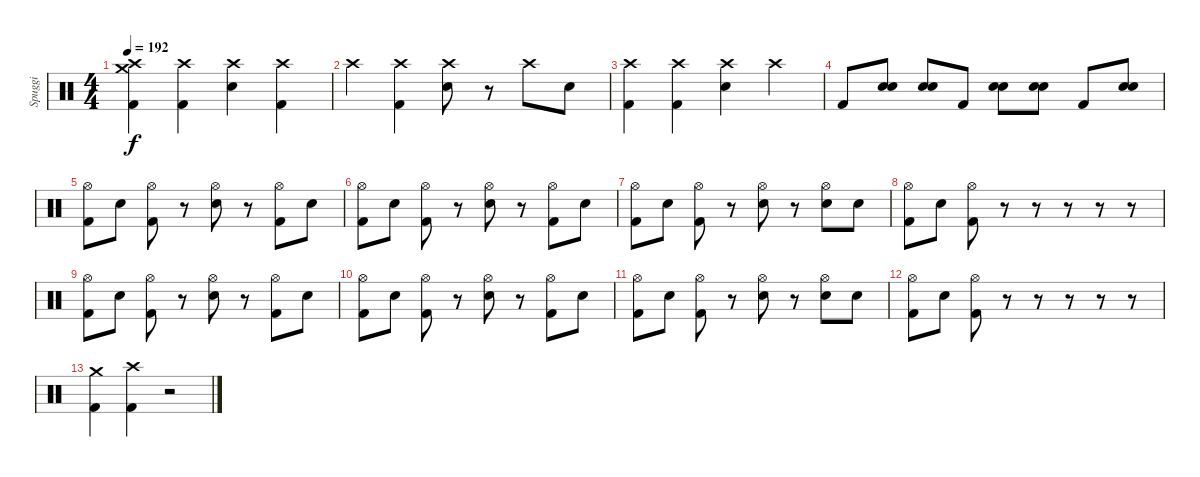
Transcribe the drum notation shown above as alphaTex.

\track ("Spuggi" "Spuggi") {instrument percussion}
\staff {score}
\articulation defaults
\ts (4 4)
\tempo 192
\clef neutral
\ks c
("Crash high (hit)" "Crash medium (hit)" "Kick (hit) 2").4{dy f} ("Crash high (hit)" "Kick (hit) 2").4 ("Crash high (hit)" "Snare (hit) 2").4 ("Crash high (hit)" "Kick (hit) 2").4 |
"Crash high (hit)".4 ("Crash high (hit)" "Kick (hit) 2").4 ("Crash high (hit)" "Snare (hit) 2").8 r.8 "Crash high (hit)".8 "Snare (hit) 2".8 |
("Crash high (hit)" "Kick (hit) 2").4 ("Crash high (hit)" "Kick (hit) 2").4 ("Crash high (hit)" "Snare (hit) 2").4 "Crash high (hit)".4 |
"Kick (hit) 2".8 ("Snare (hit) 2" "Snare (hit) 2").8 ("Snare (hit) 2" "Snare (hit) 2").8 "Kick (hit) 2".8 ("Snare (hit) 2" "Snare (hit) 2").8 ("Snare (hit) 2" "Snare (hit) 2").8 "Kick (hit) 2".8 ("Snare (hit) 2" "Snare (hit) 2").8 |
("Hi-Hat (open)" "Kick (hit) 2").8 "Snare (hit) 2".8 ("Hi-Hat (open)" "Kick (hit) 2").8 r.8 ("Hi-Hat (open)" "Snare (hit) 2").8 r.8 ("Hi-Hat (open)" "Kick (hit) 2").8 "Snare (hit) 2".8 |
("Hi-Hat (open)" "Kick (hit) 2").8 "Snare (hit) 2".8 ("Hi-Hat (open)" "Kick (hit) 2").8 r.8 ("Hi-Hat (open)" "Snare (hit) 2").8 r.8 ("Hi-Hat (open)" "Kick (hit) 2").8 "Snare (hit) 2".8 |
("Hi-Hat (open)" "Kick (hit) 2").8 "Snare (hit) 2".8 ("Hi-Hat (open)" "Kick (hit) 2").8 r.8 ("Hi-Hat (open)" "Snare (hit) 2").8 r.8 ("Hi-Hat (open)" "Snare (hit) 2").8 "Snare (hit) 2".8 |
("Hi-Hat (open)" "Kick (hit) 2").8 "Snare (hit) 2".8 ("Hi-Hat (open)" "Kick (hit) 2").8 r.8 r.8 r.8 r.8 r.8 |
("Hi-Hat (open)" "Kick (hit) 2").8 "Snare (hit) 2".8 ("Hi-Hat (open)" "Kick (hit) 2").8 r.8 ("Hi-Hat (open)" "Snare (hit) 2").8 r.8 ("Hi-Hat (open)" "Kick (hit) 2").8 "Snare (hit) 2".8 |
("Hi-Hat (open)" "Kick (hit) 2").8 "Snare (hit) 2".8 ("Hi-Hat (open)" "Kick (hit) 2").8 r.8 ("Hi-Hat (open)" "Snare (hit) 2").8 r.8 ("Hi-Hat (open)" "Kick (hit) 2").8 "Snare (hit) 2".8 |
("Hi-Hat (open)" "Kick (hit) 2").8 "Snare (hit) 2".8 ("Hi-Hat (open)" "Kick (hit) 2").8 r.8 ("Hi-Hat (open)" "Snare (hit) 2").8 r.8 ("Hi-Hat (open)" "Snare (hit) 2").8 "Snare (hit) 2".8 |
("Hi-Hat (open)" "Kick (hit) 2").8 "Snare (hit) 2".8 ("Hi-Hat (open)" "Kick (hit) 2").8 r.8 r.8 r.8 r.8 r.8 |
("Crash medium (hit)" "Kick (hit) 2").4 ("Crash high (hit)" "Kick (hit) 2").4 r.2
